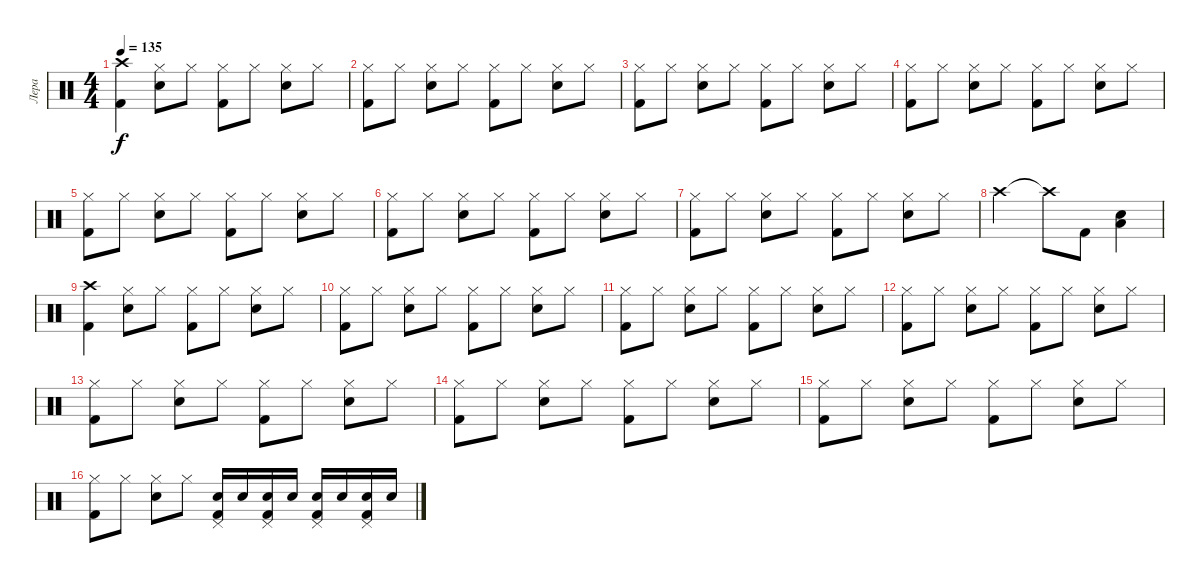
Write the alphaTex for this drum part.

\track ("Лера" "Лера") {instrument percussion}
\staff {score}
\articulation defaults
\ts (4 4)
\tempo 135
\clef neutral
\ks c
("Crash high (hit)" "Kick (hit) 2").4{dy f} ("Hi-Hat (closed)" "Electric Snare (hit)").8 "Hi-Hat (closed)".8 ("Hi-Hat (closed)" "Kick (hit) 2").8 "Hi-Hat (closed)".8 ("Hi-Hat (closed)" "Electric Snare (hit)").8 "Hi-Hat (closed)".8 |
("Hi-Hat (closed)" "Kick (hit) 2").8 "Hi-Hat (closed)".8 ("Hi-Hat (closed)" "Electric Snare (hit)").8 "Hi-Hat (closed)".8 ("Hi-Hat (closed)" "Kick (hit) 2").8 "Hi-Hat (closed)".8 ("Hi-Hat (closed)" "Electric Snare (hit)").8 "Hi-Hat (closed)".8 |
("Hi-Hat (closed)" "Kick (hit) 2").8 "Hi-Hat (closed)".8 ("Hi-Hat (closed)" "Electric Snare (hit)").8 "Hi-Hat (closed)".8 ("Hi-Hat (closed)" "Kick (hit) 2").8 "Hi-Hat (closed)".8 ("Hi-Hat (closed)" "Electric Snare (hit)").8 "Hi-Hat (closed)".8 |
("Hi-Hat (closed)" "Kick (hit) 2").8 "Hi-Hat (closed)".8 ("Hi-Hat (closed)" "Electric Snare (hit)").8 "Hi-Hat (closed)".8 ("Hi-Hat (closed)" "Kick (hit) 2").8 "Hi-Hat (closed)".8 ("Hi-Hat (closed)" "Electric Snare (hit)").8 "Hi-Hat (closed)".8 |
("Hi-Hat (closed)" "Kick (hit) 2").8 "Hi-Hat (closed)".8 ("Hi-Hat (closed)" "Electric Snare (hit)").8 "Hi-Hat (closed)".8 ("Hi-Hat (closed)" "Kick (hit) 2").8 "Hi-Hat (closed)".8 ("Hi-Hat (closed)" "Electric Snare (hit)").8 "Hi-Hat (closed)".8 |
("Hi-Hat (closed)" "Kick (hit) 2").8 "Hi-Hat (closed)".8 ("Hi-Hat (closed)" "Electric Snare (hit)").8 "Hi-Hat (closed)".8 ("Hi-Hat (closed)" "Kick (hit) 2").8 "Hi-Hat (closed)".8 ("Hi-Hat (closed)" "Electric Snare (hit)").8 "Hi-Hat (closed)".8 |
("Hi-Hat (closed)" "Kick (hit) 2").8 "Hi-Hat (closed)".8 ("Hi-Hat (closed)" "Electric Snare (hit)").8 "Hi-Hat (closed)".8 ("Hi-Hat (closed)" "Kick (hit) 2").8 "Hi-Hat (closed)".8 ("Hi-Hat (closed)" "Electric Snare (hit)").8 "Hi-Hat (closed)".8 |
"Crash high (hit)".2 "Crash high (hit)"{t}.8 "Kick (hit) 2".8 ("Electric Snare (hit)" "Low Tom (hit)").4 |
("Crash high (hit)" "Kick (hit) 2").4 ("Hi-Hat (closed)" "Electric Snare (hit)").8 "Hi-Hat (closed)".8 ("Hi-Hat (closed)" "Kick (hit) 2").8 "Hi-Hat (closed)".8 ("Hi-Hat (closed)" "Electric Snare (hit)").8 "Hi-Hat (closed)".8 |
("Hi-Hat (closed)" "Kick (hit) 2").8 "Hi-Hat (closed)".8 ("Hi-Hat (closed)" "Electric Snare (hit)").8 "Hi-Hat (closed)".8 ("Hi-Hat (closed)" "Kick (hit) 2").8 "Hi-Hat (closed)".8 ("Hi-Hat (closed)" "Electric Snare (hit)").8 "Hi-Hat (closed)".8 |
("Hi-Hat (closed)" "Kick (hit) 2").8 "Hi-Hat (closed)".8 ("Hi-Hat (closed)" "Electric Snare (hit)").8 "Hi-Hat (closed)".8 ("Hi-Hat (closed)" "Kick (hit) 2").8 "Hi-Hat (closed)".8 ("Hi-Hat (closed)" "Electric Snare (hit)").8 "Hi-Hat (closed)".8 |
("Hi-Hat (closed)" "Kick (hit) 2").8 "Hi-Hat (closed)".8 ("Hi-Hat (closed)" "Electric Snare (hit)").8 "Hi-Hat (closed)".8 ("Hi-Hat (closed)" "Kick (hit) 2").8 "Hi-Hat (closed)".8 ("Hi-Hat (closed)" "Electric Snare (hit)").8 "Hi-Hat (closed)".8 |
("Hi-Hat (closed)" "Kick (hit) 2").8 "Hi-Hat (closed)".8 ("Hi-Hat (closed)" "Electric Snare (hit)").8 "Hi-Hat (closed)".8 ("Hi-Hat (closed)" "Kick (hit) 2").8 "Hi-Hat (closed)".8 ("Hi-Hat (closed)" "Electric Snare (hit)").8 "Hi-Hat (closed)".8 |
("Hi-Hat (closed)" "Kick (hit) 2").8 "Hi-Hat (closed)".8 ("Hi-Hat (closed)" "Electric Snare (hit)").8 "Hi-Hat (closed)".8 ("Hi-Hat (closed)" "Kick (hit) 2").8 "Hi-Hat (closed)".8 ("Hi-Hat (closed)" "Electric Snare (hit)").8 "Hi-Hat (closed)".8 |
("Hi-Hat (closed)" "Kick (hit) 2").8 "Hi-Hat (closed)".8 ("Hi-Hat (closed)" "Electric Snare (hit)").8 "Hi-Hat (closed)".8 ("Hi-Hat (closed)" "Kick (hit) 2").8 "Hi-Hat (closed)".8 ("Hi-Hat (closed)" "Electric Snare (hit)").8 "Hi-Hat (closed)".8 |
("Hi-Hat (closed)" "Kick (hit) 2").8 "Hi-Hat (closed)".8 ("Hi-Hat (closed)" "Electric Snare (hit)").8 "Hi-Hat (closed)".8 ("Electric Snare (hit)" "Kick (hit) 2" "Pedal Hi-Hat (hit)").16 "Electric Snare (hit)".16 ("Electric Snare (hit)" "Kick (hit) 2" "Pedal Hi-Hat (hit)").16 "Electric Snare (hit)".16 ("Electric Snare (hit)" "Kick (hit) 2" "Pedal Hi-Hat (hit)").16 "Electric Snare (hit)".16 ("Electric Snare (hit)" "Kick (hit) 2" "Pedal Hi-Hat (hit)").16 "Electric Snare (hit)".16
